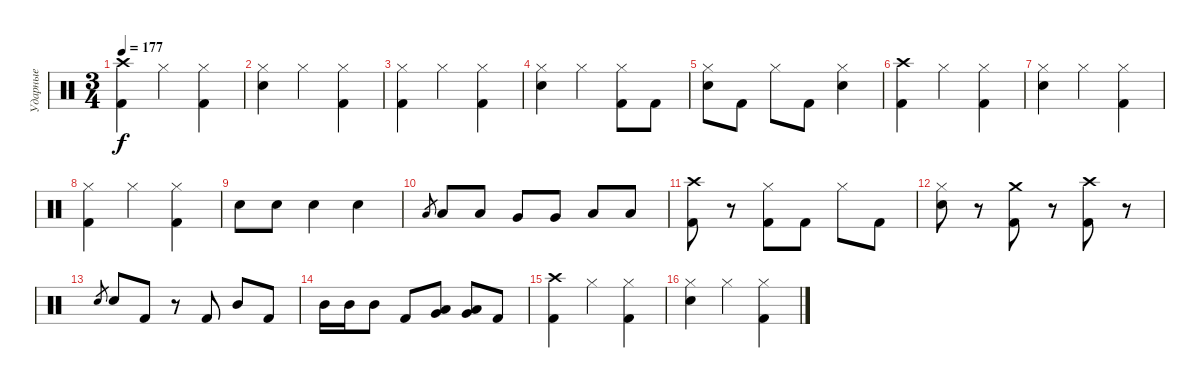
\track ("Ударные" "Ударные") {instrument percussion}
\staff {score}
\articulation defaults
\ts (3 4)
\tempo 177
\clef neutral
\ks c
("Crash high (hit)" "Kick (hit) 2").4{dy f} "Hi-Hat (closed)".4 ("Hi-Hat (closed)" "Kick (hit) 2").4 |
("Hi-Hat (closed)" "Snare (hit) 2").4 "Hi-Hat (closed)".4 ("Hi-Hat (closed)" "Kick (hit) 2").4 |
("Hi-Hat (closed)" "Kick (hit) 2").4 "Hi-Hat (closed)".4 ("Hi-Hat (closed)" "Kick (hit) 2").4 |
("Hi-Hat (closed)" "Snare (hit) 2").4 "Hi-Hat (closed)".4 ("Hi-Hat (closed)" "Kick (hit) 2").8 "Kick (hit) 2".8 |
("Hi-Hat (closed)" "Snare (hit) 2").8 "Kick (hit) 2".8 "Hi-Hat (closed)".8 "Kick (hit) 2".8 ("Hi-Hat (closed)" "Snare (hit) 2").4 |
("Crash high (hit)" "Kick (hit) 2").4 "Hi-Hat (closed)".4 ("Hi-Hat (closed)" "Kick (hit) 2").4 |
("Hi-Hat (closed)" "Snare (hit) 2").4 "Hi-Hat (closed)".4 ("Hi-Hat (closed)" "Kick (hit) 2").4 |
("Hi-Hat (closed)" "Kick (hit) 2").4 "Hi-Hat (closed)".4 ("Hi-Hat (closed)" "Kick (hit) 2").4 |
"Snare (hit) 2".8 "Snare (hit) 2".8 "Snare (hit) 2".4 "Snare (hit) 2".4 |
"Low Tom (hit)".8{gr} "Low Tom (hit)".8 "Low Tom (hit)".8 "Very Low Tom (hit)".8 "Very Low Tom (hit)".8 "Low Floor Tom (hit)".8 "Low Floor Tom (hit)".8 |
("Crash high (hit)" "Kick (hit) 2").8 r.8 ("Hi-Hat (closed)" "Kick (hit) 2").8 "Kick (hit) 2".8 "Hi-Hat (closed)".8 "Kick (hit) 2".8 |
("Hi-Hat (closed)" "Snare (hit) 2").8 r.8 ("Crash medium (hit)" "Kick (hit) 2").8 r.8 ("Crash high (hit)" "Kick (hit) 2").8 r.8 |
"Snare (hit) 2".8{gr} "Snare (hit) 2".8 "Kick (hit) 2".8 r.8 "Kick (hit) 2".8 "Mid Tom (hit)".8 "Kick (hit) 2".8 |
"Mid Tom (hit)".16 "Mid Tom (hit)".16 "Mid Tom (hit)".8 "Kick (hit) 2".8 ("Low Tom (hit)" "Very Low Tom (hit)").8 ("Low Tom (hit)" "Very Low Tom (hit)").8 "Kick (hit) 2".8 |
("Crash high (hit)" "Kick (hit) 2").4 "Hi-Hat (closed)".4 ("Hi-Hat (closed)" "Kick (hit) 2").4 |
("Hi-Hat (closed)" "Snare (hit) 2").4 "Hi-Hat (closed)".4 ("Hi-Hat (closed)" "Kick (hit) 2").4
